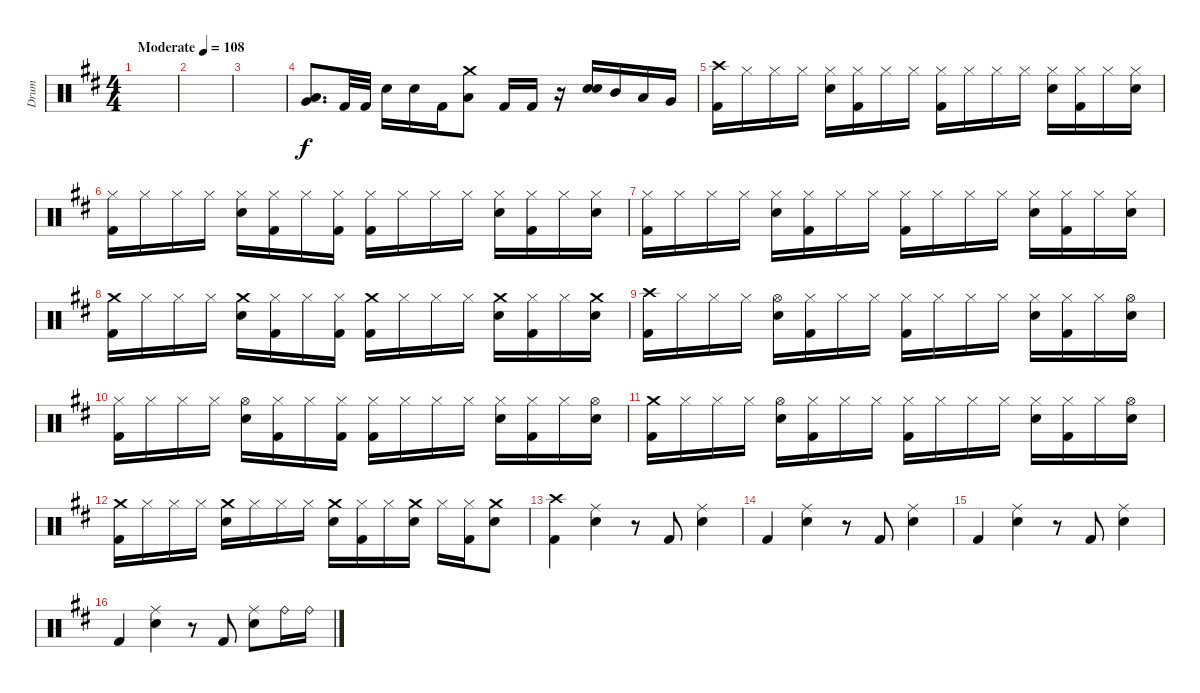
\track ("Drum" "Drum") {instrument percussion}
\staff {score}
\articulation defaults
\ts (4 4)
\tempo (108 "Moderate")
\clef neutral
\ks d
|
|
|
("Low Floor Tom (hit)" "Very Low Tom (hit)").8{d} "Kick (hit) 2".32 "Kick (hit) 2".32 "Snare (hit) 2".16 "Snare (hit) 2".16 "Kick (hit) 2".16 ("Crash medium (hit)" "Low Tom (hit)").8 "Kick (hit) 2".16 "Kick (hit) 2".16 r.16 ("Snare (hit) 2" "Snare (hit) 2").16{bd 240} "Mid Tom (hit)".16 "Low Tom (hit)".16 "Very Low Tom (hit)".16 |
("Crash high (hit)" "Kick (hit) 2").16 "Hi-Hat (closed)".16 "Hi-Hat (closed)".16 "Hi-Hat (closed)".16 ("Hi-Hat (closed)" "Snare (hit) 2").16 ("Hi-Hat (closed)" "Kick (hit) 2").16 "Hi-Hat (closed)".16 "Hi-Hat (closed)".16 ("Hi-Hat (closed)" "Kick (hit) 2").16 "Hi-Hat (closed)".16 "Hi-Hat (closed)".16 "Hi-Hat (closed)".16 ("Hi-Hat (closed)" "Snare (hit) 2").16 ("Hi-Hat (closed)" "Kick (hit) 2").16 "Hi-Hat (closed)".16 ("Hi-Hat (closed)" "Snare (hit) 2").16 |
("Hi-Hat (closed)" "Kick (hit) 2").16 "Hi-Hat (closed)".16 "Hi-Hat (closed)".16 "Hi-Hat (closed)".16 ("Hi-Hat (closed)" "Snare (hit) 2").16 ("Hi-Hat (closed)" "Kick (hit) 2").16 "Hi-Hat (closed)".16 ("Hi-Hat (closed)" "Kick (hit) 2").16 ("Hi-Hat (closed)" "Kick (hit) 2").16 "Hi-Hat (closed)".16 "Hi-Hat (closed)".16 "Hi-Hat (closed)".16 ("Hi-Hat (closed)" "Snare (hit) 2").16 ("Hi-Hat (closed)" "Kick (hit) 2").16 "Hi-Hat (closed)".16 ("Hi-Hat (closed)" "Snare (hit) 2").16 |
("Hi-Hat (closed)" "Kick (hit) 2").16 "Hi-Hat (closed)".16 "Hi-Hat (closed)".16 "Hi-Hat (closed)".16 ("Hi-Hat (closed)" "Snare (hit) 2").16 ("Hi-Hat (closed)" "Kick (hit) 2").16 "Hi-Hat (closed)".16 "Hi-Hat (closed)".16 ("Hi-Hat (closed)" "Kick (hit) 2").16 "Hi-Hat (closed)".16 "Hi-Hat (closed)".16 "Hi-Hat (closed)".16 ("Hi-Hat (closed)" "Snare (hit) 2").16 ("Hi-Hat (closed)" "Kick (hit) 2").16 "Hi-Hat (closed)".16 ("Hi-Hat (closed)" "Snare (hit) 2").16 |
("Crash medium (hit)" "Kick (hit) 2").16 "Hi-Hat (closed)".16 "Hi-Hat (closed)".16 "Hi-Hat (closed)".16 ("Crash medium (hit)" "Snare (hit) 2").16 ("Hi-Hat (closed)" "Kick (hit) 2").16 "Hi-Hat (closed)".16 ("Hi-Hat (closed)" "Kick (hit) 2").16 ("Crash medium (hit)" "Kick (hit) 2").16 "Hi-Hat (closed)".16 "Hi-Hat (closed)".16 "Hi-Hat (closed)".16 ("Crash medium (hit)" "Snare (hit) 2").16 ("Hi-Hat (closed)" "Kick (hit) 2").16 "Hi-Hat (closed)".16 ("Crash medium (hit)" "Snare (hit) 2").16 |
("Crash high (hit)" "Kick (hit) 2").16 "Hi-Hat (closed)".16 "Hi-Hat (closed)".16 "Hi-Hat (closed)".16 ("Hi-Hat (open)" "Snare (hit) 2").16 ("Hi-Hat (closed)" "Kick (hit) 2").16 "Hi-Hat (closed)".16 "Hi-Hat (closed)".16 ("Hi-Hat (closed)" "Kick (hit) 2").16 "Hi-Hat (closed)".16 "Hi-Hat (closed)".16 "Hi-Hat (closed)".16 ("Hi-Hat (closed)" "Snare (hit) 2").16 ("Hi-Hat (closed)" "Kick (hit) 2").16 "Hi-Hat (closed)".16 ("Hi-Hat (open)" "Snare (hit) 2").16 |
("Hi-Hat (closed)" "Kick (hit) 2").16 "Hi-Hat (closed)".16 "Hi-Hat (closed)".16 "Hi-Hat (closed)".16 ("Hi-Hat (open)" "Snare (hit) 2").16 ("Hi-Hat (closed)" "Kick (hit) 2").16 "Hi-Hat (closed)".16 ("Hi-Hat (closed)" "Kick (hit) 2").16 ("Hi-Hat (closed)" "Kick (hit) 2").16 "Hi-Hat (closed)".16 "Hi-Hat (closed)".16 "Hi-Hat (closed)".16 ("Hi-Hat (closed)" "Snare (hit) 2").16 ("Hi-Hat (closed)" "Kick (hit) 2").16 "Hi-Hat (closed)".16 ("Hi-Hat (open)" "Snare (hit) 2").16 |
("Crash medium (hit)" "Kick (hit) 2").16 "Hi-Hat (closed)".16 "Hi-Hat (closed)".16 "Hi-Hat (closed)".16 ("Hi-Hat (open)" "Snare (hit) 2").16 ("Hi-Hat (closed)" "Kick (hit) 2").16 "Hi-Hat (closed)".16 "Hi-Hat (closed)".16 ("Hi-Hat (closed)" "Kick (hit) 2").16 "Hi-Hat (closed)".16 "Hi-Hat (closed)".16 "Hi-Hat (closed)".16 ("Hi-Hat (closed)" "Snare (hit) 2").16 ("Hi-Hat (closed)" "Kick (hit) 2").16 "Hi-Hat (closed)".16 ("Hi-Hat (open)" "Snare (hit) 2").16 |
("Crash medium (hit)" "Kick (hit) 2").16 "Hi-Hat (closed)".16 "Hi-Hat (closed)".16 "Hi-Hat (closed)".16 ("Crash medium (hit)" "Snare (hit) 2").16 "Hi-Hat (closed)".16 "Hi-Hat (closed)".16 "Hi-Hat (closed)".16 ("Crash medium (hit)" "Snare (hit) 2").16 ("Hi-Hat (closed)" "Kick (hit) 2").16 "Hi-Hat (closed)".16 ("Crash medium (hit)" "Snare (hit) 2").16 "Hi-Hat (closed)".16 ("Hi-Hat (closed)" "Kick (hit) 2").16 ("Crash medium (hit)" "Snare (hit) 2").8 |
("Crash high (hit)" "Kick (hit) 2").4 ("Ride (middle)" "Snare (hit) 2").4 r.8 "Kick (hit) 2".8 ("Ride (middle)" "Snare (hit) 2").4 |
"Kick (hit) 2".4 ("Ride (middle)" "Snare (hit) 2").4 r.8 "Kick (hit) 2".8 ("Ride (middle)" "Snare (hit) 2").4 |
"Kick (hit) 2".4 ("Ride (middle)" "Snare (hit) 2").4 r.8 "Kick (hit) 2".8 ("Ride (middle)" "Snare (hit) 2").4 |
"Kick (hit) 2".4 ("Ride (middle)" "Snare (hit) 2").4 r.8 "Kick (hit) 2".8 ("Ride (middle)" "Snare (hit) 2").8 "Ride (bell)".16 "Ride (bell)".16
